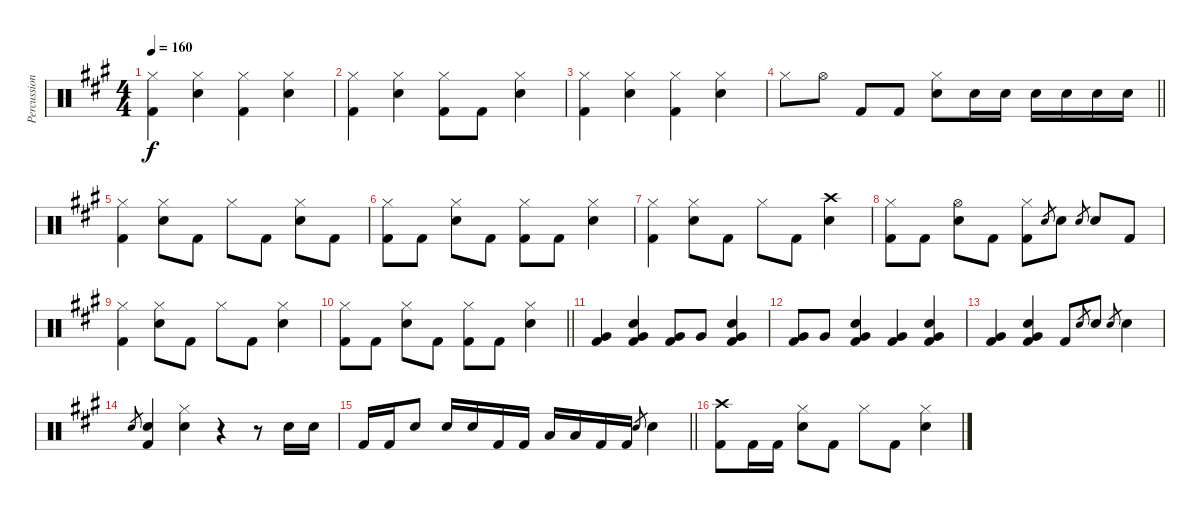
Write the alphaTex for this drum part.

\track ("Percussions" "Percussion") {instrument percussion}
\staff {score}
\articulation defaults
\ts (4 4)
\tempo 160
\clef neutral
\ks a
("Hi-Hat (closed)" "Kick (hit) 2").4{dy f} ("Hi-Hat (closed)" "Snare (hit) 2").4 ("Hi-Hat (closed)" "Kick (hit) 2").4 ("Hi-Hat (closed)" "Snare (hit) 2").4 |
("Hi-Hat (closed)" "Kick (hit) 2").4 ("Hi-Hat (closed)" "Snare (hit) 2").4 ("Hi-Hat (closed)" "Kick (hit) 2").8 "Kick (hit) 2".8 ("Hi-Hat (closed)" "Snare (hit) 2").4 |
("Hi-Hat (closed)" "Kick (hit) 2").4 ("Hi-Hat (closed)" "Snare (hit) 2").4 ("Hi-Hat (closed)" "Kick (hit) 2").4 ("Hi-Hat (closed)" "Snare (hit) 2").4 |
\barLineRight lightlight "Hi-Hat (closed)".8 "Hi-Hat (open)".8 "Kick (hit) 2".8 "Kick (hit) 2".8
("Hi-Hat (closed)" "Snare (hit) 2").8 "Snare (hit) 2".16 "Snare (hit) 2".16 "Snare (hit) 2".16 "Snare (hit) 2".16 "Snare (hit) 2".16 "Snare (hit) 2".16 |
("Hi-Hat (closed)" "Kick (hit) 2").4 ("Hi-Hat (closed)" "Snare (hit) 2").8 "Kick (hit) 2".8 "Hi-Hat (closed)".8 "Kick (hit) 2".8 ("Hi-Hat (closed)" "Snare (hit) 2").8 "Kick (hit) 2".8 |
("Hi-Hat (closed)" "Kick (hit) 2").8 "Kick (hit) 2".8 ("Hi-Hat (closed)" "Snare (hit) 2").8 "Kick (hit) 2".8 ("Hi-Hat (closed)" "Kick (hit) 2").8 "Kick (hit) 2".8 ("Hi-Hat (closed)" "Snare (hit) 2").4 |
("Hi-Hat (closed)" "Kick (hit) 2").4 ("Hi-Hat (closed)" "Snare (hit) 2").8 "Kick (hit) 2".8 "Hi-Hat (closed)".8 "Kick (hit) 2".8 ("Snare (hit) 2" "Crash high (hit)").4 |
("Hi-Hat (closed)" "Kick (hit) 2").8 "Kick (hit) 2".8 ("Hi-Hat (open)" "Snare (hit) 2").8 "Kick (hit) 2".8 ("Hi-Hat (closed)" "Kick (hit) 2").8 "Snare (hit) 2".8{gr} "Snare (hit) 2".8 "Snare (hit) 2".8{gr} "Snare (hit) 2".8 "Kick (hit) 2".8 |
("Hi-Hat (closed)" "Kick (hit) 2").4 ("Hi-Hat (closed)" "Snare (hit) 2").8 "Kick (hit) 2".8 "Hi-Hat (closed)".8 "Kick (hit) 2".8 ("Hi-Hat (closed)" "Snare (hit) 2").4 |
\barLineRight lightlight
("Hi-Hat (closed)" "Kick (hit) 2").8 "Kick (hit) 2".8 ("Hi-Hat (closed)" "Snare (hit) 2").8 "Kick (hit) 2".8 ("Hi-Hat (closed)" "Kick (hit) 2").8 "Kick (hit) 2".8 ("Hi-Hat (closed)" "Snare (hit) 2").4 |
("Kick (hit) 2" "Very Low Tom (hit)").4 ("Snare (hit) 2" "Kick (hit) 2" "Very Low Tom (hit)").4 ("Kick (hit) 2" "Very Low Tom (hit)").8 "Very Low Tom (hit)".8 ("Snare (hit) 2" "Kick (hit) 2" "Very Low Tom (hit)").4 |
("Kick (hit) 2" "Very Low Tom (hit)").8 "Very Low Tom (hit)".8 ("Snare (hit) 2" "Kick (hit) 2" "Very Low Tom (hit)").4 ("Kick (hit) 2" "Very Low Tom (hit)").4 ("Snare (hit) 2" "Kick (hit) 2" "Very Low Tom (hit)").4 |
("Kick (hit) 2" "Very Low Tom (hit)").4 ("Snare (hit) 2" "Kick (hit) 2" "Very Low Tom (hit)").4 "Kick (hit) 2".8 "Snare (hit) 2".8{gr} "Snare (hit) 2".8 "Snare (hit) 2".8{gr} "Snare (hit) 2".4 |
"Snare (hit) 2".8{gr} ("Snare (hit) 2" "Kick (hit) 2").4 ("Hi-Hat (closed)" "Snare (hit) 2").4 r.4 r.8 "Snare (hit) 2".16 "Snare (hit) 2".16 |
\barLineRight lightlight "Kick (hit) 2".16 "Kick (hit) 2".16 "Snare (hit) 2".8 "Snare (hit) 2".16 "Snare (hit) 2".16 "Kick (hit) 2".16 "Kick (hit) 2".16 "Low Tom (hit)".16 "Low Tom (hit)".16 "Kick (hit) 2".16 "Kick (hit) 2".16 "Snare (hit) 2".8{gr} "Snare (hit) 2".4
|
("Kick (hit) 2" "Crash high (hit)").8 "Kick (hit) 2".16 "Kick (hit) 2".16 ("Hi-Hat (closed)" "Snare (hit) 2").8 "Kick (hit) 2".8 "Hi-Hat (closed)".8 "Kick (hit) 2".8 ("Hi-Hat (closed)" "Snare (hit) 2").4
